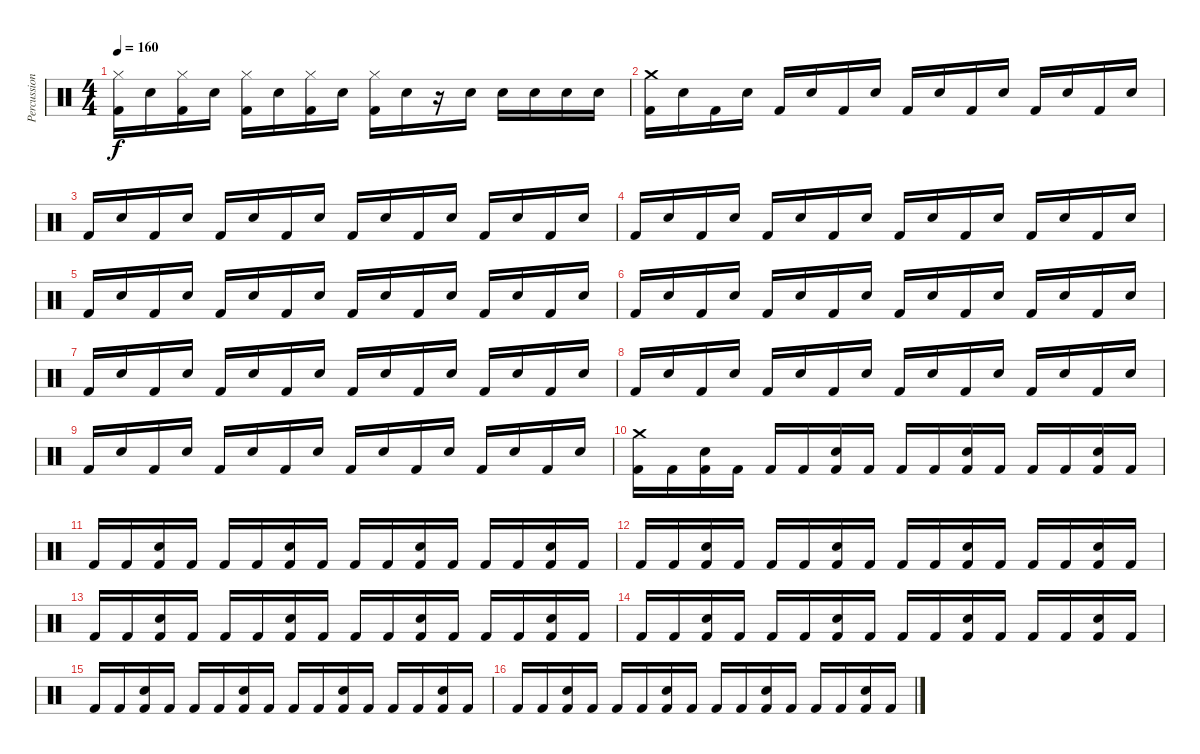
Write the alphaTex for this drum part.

\track ("Percussions" "Percussion") {instrument percussion}
\staff {score}
\articulation defaults
\ts (4 4)
\tempo 160
\clef neutral
\ks c
("Hi-Hat (closed)" "Kick (hit) 2").16{dy f} "Snare (hit) 2".16 ("Hi-Hat (closed)" "Kick (hit) 2").16 "Snare (hit) 2".16 ("Hi-Hat (closed)" "Kick (hit) 2").16 "Snare (hit) 2".16 ("Hi-Hat (closed)" "Kick (hit) 2").16 "Snare (hit) 2".16 ("Hi-Hat (closed)" "Kick (hit) 2").16 "Snare (hit) 2".16 r.16 "Snare (hit) 2".16 "Snare (hit) 2".16 "Snare (hit) 2".16 "Snare (hit) 2".16 "Snare (hit) 2".16 |
("Crash medium (hit)" "Kick (hit) 2").16 "Snare (hit) 2".16 "Kick (hit) 2".16 "Snare (hit) 2".16 "Kick (hit) 2".16 "Snare (hit) 2".16 "Kick (hit) 2".16 "Snare (hit) 2".16 "Kick (hit) 2".16 "Snare (hit) 2".16 "Kick (hit) 2".16 "Snare (hit) 2".16 "Kick (hit) 2".16 "Snare (hit) 2".16 "Kick (hit) 2".16 "Snare (hit) 2".16 |
"Kick (hit) 2".16 "Snare (hit) 2".16 "Kick (hit) 2".16 "Snare (hit) 2".16 "Kick (hit) 2".16 "Snare (hit) 2".16 "Kick (hit) 2".16 "Snare (hit) 2".16 "Kick (hit) 2".16 "Snare (hit) 2".16 "Kick (hit) 2".16 "Snare (hit) 2".16 "Kick (hit) 2".16 "Snare (hit) 2".16 "Kick (hit) 2".16 "Snare (hit) 2".16 |
"Kick (hit) 2".16 "Snare (hit) 2".16 "Kick (hit) 2".16 "Snare (hit) 2".16 "Kick (hit) 2".16 "Snare (hit) 2".16 "Kick (hit) 2".16 "Snare (hit) 2".16 "Kick (hit) 2".16 "Snare (hit) 2".16 "Kick (hit) 2".16 "Snare (hit) 2".16 "Kick (hit) 2".16 "Snare (hit) 2".16 "Kick (hit) 2".16 "Snare (hit) 2".16 |
"Kick (hit) 2".16 "Snare (hit) 2".16 "Kick (hit) 2".16 "Snare (hit) 2".16 "Kick (hit) 2".16 "Snare (hit) 2".16 "Kick (hit) 2".16 "Snare (hit) 2".16 "Kick (hit) 2".16 "Snare (hit) 2".16 "Kick (hit) 2".16 "Snare (hit) 2".16 "Kick (hit) 2".16 "Snare (hit) 2".16 "Kick (hit) 2".16 "Snare (hit) 2".16 |
"Kick (hit) 2".16 "Snare (hit) 2".16 "Kick (hit) 2".16 "Snare (hit) 2".16 "Kick (hit) 2".16 "Snare (hit) 2".16 "Kick (hit) 2".16 "Snare (hit) 2".16 "Kick (hit) 2".16 "Snare (hit) 2".16 "Kick (hit) 2".16 "Snare (hit) 2".16 "Kick (hit) 2".16 "Snare (hit) 2".16 "Kick (hit) 2".16 "Snare (hit) 2".16 |
"Kick (hit) 2".16 "Snare (hit) 2".16 "Kick (hit) 2".16 "Snare (hit) 2".16 "Kick (hit) 2".16 "Snare (hit) 2".16 "Kick (hit) 2".16 "Snare (hit) 2".16 "Kick (hit) 2".16 "Snare (hit) 2".16 "Kick (hit) 2".16 "Snare (hit) 2".16 "Kick (hit) 2".16 "Snare (hit) 2".16 "Kick (hit) 2".16 "Snare (hit) 2".16 |
"Kick (hit) 2".16 "Snare (hit) 2".16 "Kick (hit) 2".16 "Snare (hit) 2".16 "Kick (hit) 2".16 "Snare (hit) 2".16 "Kick (hit) 2".16 "Snare (hit) 2".16 "Kick (hit) 2".16 "Snare (hit) 2".16 "Kick (hit) 2".16 "Snare (hit) 2".16 "Kick (hit) 2".16 "Snare (hit) 2".16 "Kick (hit) 2".16 "Snare (hit) 2".16 |
"Kick (hit) 2".16 "Snare (hit) 2".16 "Kick (hit) 2".16 "Snare (hit) 2".16 "Kick (hit) 2".16 "Snare (hit) 2".16 "Kick (hit) 2".16 "Snare (hit) 2".16 "Kick (hit) 2".16 "Snare (hit) 2".16 "Kick (hit) 2".16 "Snare (hit) 2".16 "Kick (hit) 2".16 "Snare (hit) 2".16 "Kick (hit) 2".16 "Snare (hit) 2".16 |
("Crash medium (hit)" "Kick (hit) 2").16 "Kick (hit) 2".16 ("Snare (hit) 2" "Kick (hit) 2").16 "Kick (hit) 2".16 "Kick (hit) 2".16 "Kick (hit) 2".16 ("Snare (hit) 2" "Kick (hit) 2").16 "Kick (hit) 2".16 "Kick (hit) 2".16 "Kick (hit) 2".16 ("Snare (hit) 2" "Kick (hit) 2").16 "Kick (hit) 2".16 "Kick (hit) 2".16 "Kick (hit) 2".16 ("Snare (hit) 2" "Kick (hit) 2").16 "Kick (hit) 2".16 |
"Kick (hit) 2".16 "Kick (hit) 2".16 ("Snare (hit) 2" "Kick (hit) 2").16 "Kick (hit) 2".16 "Kick (hit) 2".16 "Kick (hit) 2".16 ("Snare (hit) 2" "Kick (hit) 2").16 "Kick (hit) 2".16 "Kick (hit) 2".16 "Kick (hit) 2".16 ("Snare (hit) 2" "Kick (hit) 2").16 "Kick (hit) 2".16 "Kick (hit) 2".16 "Kick (hit) 2".16 ("Snare (hit) 2" "Kick (hit) 2").16 "Kick (hit) 2".16 |
"Kick (hit) 2".16 "Kick (hit) 2".16 ("Snare (hit) 2" "Kick (hit) 2").16 "Kick (hit) 2".16 "Kick (hit) 2".16 "Kick (hit) 2".16 ("Snare (hit) 2" "Kick (hit) 2").16 "Kick (hit) 2".16 "Kick (hit) 2".16 "Kick (hit) 2".16 ("Snare (hit) 2" "Kick (hit) 2").16 "Kick (hit) 2".16 "Kick (hit) 2".16 "Kick (hit) 2".16 ("Snare (hit) 2" "Kick (hit) 2").16 "Kick (hit) 2".16 |
"Kick (hit) 2".16 "Kick (hit) 2".16 ("Snare (hit) 2" "Kick (hit) 2").16 "Kick (hit) 2".16 "Kick (hit) 2".16 "Kick (hit) 2".16 ("Snare (hit) 2" "Kick (hit) 2").16 "Kick (hit) 2".16 "Kick (hit) 2".16 "Kick (hit) 2".16 ("Snare (hit) 2" "Kick (hit) 2").16 "Kick (hit) 2".16 "Kick (hit) 2".16 "Kick (hit) 2".16 ("Snare (hit) 2" "Kick (hit) 2").16 "Kick (hit) 2".16 |
"Kick (hit) 2".16 "Kick (hit) 2".16 ("Snare (hit) 2" "Kick (hit) 2").16 "Kick (hit) 2".16 "Kick (hit) 2".16 "Kick (hit) 2".16 ("Snare (hit) 2" "Kick (hit) 2").16 "Kick (hit) 2".16 "Kick (hit) 2".16 "Kick (hit) 2".16 ("Snare (hit) 2" "Kick (hit) 2").16 "Kick (hit) 2".16 "Kick (hit) 2".16 "Kick (hit) 2".16 ("Snare (hit) 2" "Kick (hit) 2").16 "Kick (hit) 2".16 |
"Kick (hit) 2".16 "Kick (hit) 2".16 ("Snare (hit) 2" "Kick (hit) 2").16 "Kick (hit) 2".16 "Kick (hit) 2".16 "Kick (hit) 2".16 ("Snare (hit) 2" "Kick (hit) 2").16 "Kick (hit) 2".16 "Kick (hit) 2".16 "Kick (hit) 2".16 ("Snare (hit) 2" "Kick (hit) 2").16 "Kick (hit) 2".16 "Kick (hit) 2".16 "Kick (hit) 2".16 ("Snare (hit) 2" "Kick (hit) 2").16 "Kick (hit) 2".16 |
"Kick (hit) 2".16 "Kick (hit) 2".16 ("Snare (hit) 2" "Kick (hit) 2").16 "Kick (hit) 2".16 "Kick (hit) 2".16 "Kick (hit) 2".16 ("Snare (hit) 2" "Kick (hit) 2").16 "Kick (hit) 2".16 "Kick (hit) 2".16 "Kick (hit) 2".16 ("Snare (hit) 2" "Kick (hit) 2").16 "Kick (hit) 2".16 "Kick (hit) 2".16 "Kick (hit) 2".16 ("Snare (hit) 2" "Kick (hit) 2").16 "Kick (hit) 2".16
